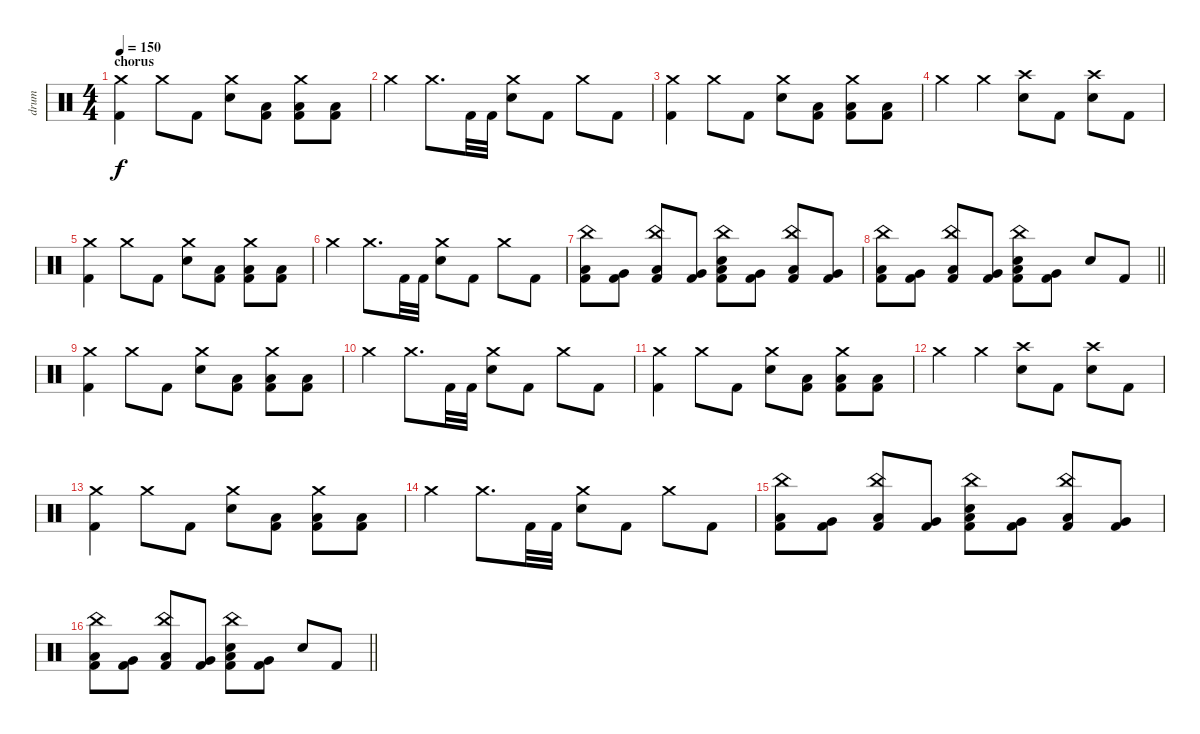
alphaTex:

\track ("drum" "drum") {instrument percussion}
\staff {score}
\articulation defaults
\ts (4 4)
\section ("" "chorus")
\tempo 150
\clef neutral
\ks c
("Crash medium (hit)" "Kick (hit) 2").4{dy f} "Crash medium (hit)".8 "Kick (hit) 2".8 ("Crash medium (hit)" "Electric Snare (hit)").8 ("Low Floor Tom (hit)" "Kick (hit) 2").8 ("Crash medium (hit)" "Low Floor Tom (hit)" "Kick (hit) 2").8 ("Low Floor Tom (hit)" "Kick (hit) 2").8 |
"Crash medium (hit)".4 "Crash medium (hit)".8{d} "Kick (hit) 2".32 "Kick (hit) 2".32 ("Crash medium (hit)" "Electric Snare (hit)").8 "Kick (hit) 2".8 "Crash medium (hit)".8 "Kick (hit) 2".8 |
("Crash medium (hit)" "Kick (hit) 2").4 "Crash medium (hit)".8 "Kick (hit) 2".8 ("Crash medium (hit)" "Electric Snare (hit)").8 ("Low Floor Tom (hit)" "Kick (hit) 2").8 ("Crash medium (hit)" "Low Floor Tom (hit)" "Kick (hit) 2").8 ("Low Floor Tom (hit)" "Kick (hit) 2").8 |
"Crash medium (hit)".4 "Crash medium (hit)".4 ("Crash high (hit)" "Electric Snare (hit)").8 "Kick (hit) 2".8 ("Crash high (hit)" "Electric Snare (hit)").8 "Kick (hit) 2".8 |
("Crash medium (hit)" "Kick (hit) 2").4 "Crash medium (hit)".8 "Kick (hit) 2".8 ("Crash medium (hit)" "Electric Snare (hit)").8 ("Low Floor Tom (hit)" "Kick (hit) 2").8 ("Crash medium (hit)" "Low Floor Tom (hit)" "Kick (hit) 2").8 ("Low Floor Tom (hit)" "Kick (hit) 2").8 |
"Crash medium (hit)".4 "Crash medium (hit)".8{d} "Kick (hit) 2".32 "Kick (hit) 2".32 ("Crash medium (hit)" "Electric Snare (hit)").8 "Kick (hit) 2".8 "Crash medium (hit)".8 "Kick (hit) 2".8 |
("China (hit)" "Low Floor Tom (hit)" "Kick (hit) 2").8 ("Very Low Tom (hit)" "Kick (hit) 2").8 ("China (hit)" "Low Tom (hit)" "Kick (hit) 2").8 ("Very Low Tom (hit)" "Kick (hit) 2").8 ("China (hit)" "Low Floor Tom (hit)" "Electric Snare (hit)" "Kick (hit) 2").8 ("Very Low Tom (hit)" "Kick (hit) 2").8 ("China (hit)" "Low Tom (hit)" "Kick (hit) 2").8 ("Very Low Tom (hit)" "Kick (hit) 2").8 |
\barLineRight lightlight
("China (hit)" "Low Floor Tom (hit)" "Kick (hit) 2").8 ("Very Low Tom (hit)" "Kick (hit) 2").8 ("China (hit)" "Low Tom (hit)" "Kick (hit) 2").8 ("Very Low Tom (hit)" "Kick (hit) 2").8 ("China (hit)" "Low Floor Tom (hit)" "Electric Snare (hit)" "Kick (hit) 2").8 ("Very Low Tom (hit)" "Kick (hit) 2").8 "Electric Snare (hit)".8 "Kick (hit) 2".8 |
("Crash medium (hit)" "Kick (hit) 2").4 "Crash medium (hit)".8 "Kick (hit) 2".8 ("Crash medium (hit)" "Electric Snare (hit)").8 ("Low Floor Tom (hit)" "Kick (hit) 2").8 ("Crash medium (hit)" "Low Floor Tom (hit)" "Kick (hit) 2").8 ("Low Floor Tom (hit)" "Kick (hit) 2").8 |
"Crash medium (hit)".4 "Crash medium (hit)".8{d} "Kick (hit) 2".32 "Kick (hit) 2".32 ("Crash medium (hit)" "Electric Snare (hit)").8 "Kick (hit) 2".8 "Crash medium (hit)".8 "Kick (hit) 2".8 |
("Crash medium (hit)" "Kick (hit) 2").4 "Crash medium (hit)".8 "Kick (hit) 2".8 ("Crash medium (hit)" "Electric Snare (hit)").8 ("Low Floor Tom (hit)" "Kick (hit) 2").8 ("Crash medium (hit)" "Low Floor Tom (hit)" "Kick (hit) 2").8 ("Low Floor Tom (hit)" "Kick (hit) 2").8 |
"Crash medium (hit)".4 "Crash medium (hit)".4 ("Crash high (hit)" "Electric Snare (hit)").8 "Kick (hit) 2".8 ("Crash high (hit)" "Electric Snare (hit)").8 "Kick (hit) 2".8 |
("Crash medium (hit)" "Kick (hit) 2").4 "Crash medium (hit)".8 "Kick (hit) 2".8 ("Crash medium (hit)" "Electric Snare (hit)").8 ("Low Floor Tom (hit)" "Kick (hit) 2").8 ("Crash medium (hit)" "Low Floor Tom (hit)" "Kick (hit) 2").8 ("Low Floor Tom (hit)" "Kick (hit) 2").8 |
"Crash medium (hit)".4 "Crash medium (hit)".8{d} "Kick (hit) 2".32 "Kick (hit) 2".32 ("Crash medium (hit)" "Electric Snare (hit)").8 "Kick (hit) 2".8 "Crash medium (hit)".8 "Kick (hit) 2".8 |
("China (hit)" "Low Floor Tom (hit)" "Kick (hit) 2").8 ("Very Low Tom (hit)" "Kick (hit) 2").8 ("China (hit)" "Low Tom (hit)" "Kick (hit) 2").8 ("Very Low Tom (hit)" "Kick (hit) 2").8 ("China (hit)" "Low Floor Tom (hit)" "Electric Snare (hit)" "Kick (hit) 2").8 ("Very Low Tom (hit)" "Kick (hit) 2").8 ("China (hit)" "Low Tom (hit)" "Kick (hit) 2").8 ("Very Low Tom (hit)" "Kick (hit) 2").8 |
\barLineRight lightlight
("China (hit)" "Low Floor Tom (hit)" "Kick (hit) 2").8 ("Very Low Tom (hit)" "Kick (hit) 2").8 ("China (hit)" "Low Tom (hit)" "Kick (hit) 2").8 ("Very Low Tom (hit)" "Kick (hit) 2").8 ("China (hit)" "Low Floor Tom (hit)" "Electric Snare (hit)" "Kick (hit) 2").8 ("Very Low Tom (hit)" "Kick (hit) 2").8 "Electric Snare (hit)".8 "Kick (hit) 2".8
